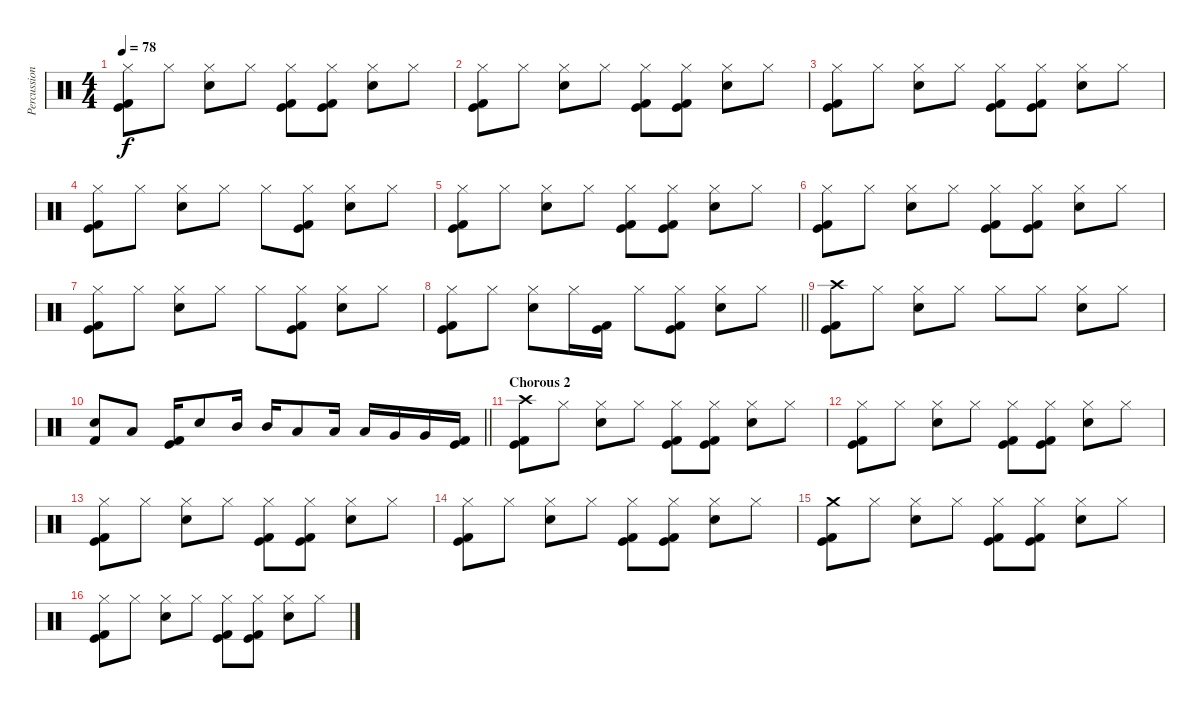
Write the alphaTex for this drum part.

\track ("Percussion" "Percussion") {instrument percussion}
\staff {score}
\articulation defaults
\ts (4 4)
\section ("" "")
\tempo 78
\clef neutral
\ks c
("Hi-Hat (closed)" "Kick (hit)" "Kick (hit) 2").8{dy f} "Hi-Hat (closed)".8 ("Hi-Hat (closed)" "Electric Snare (hit)").8 "Hi-Hat (closed)".8 ("Hi-Hat (closed)" "Kick (hit)" "Kick (hit) 2").8 ("Hi-Hat (closed)" "Kick (hit)" "Kick (hit) 2").8 ("Hi-Hat (closed)" "Electric Snare (hit)").8 "Hi-Hat (closed)".8 |
("Hi-Hat (closed)" "Kick (hit)" "Kick (hit) 2").8 "Hi-Hat (closed)".8 ("Hi-Hat (closed)" "Electric Snare (hit)").8 "Hi-Hat (closed)".8 ("Hi-Hat (closed)" "Kick (hit)" "Kick (hit) 2").8 ("Hi-Hat (closed)" "Kick (hit)" "Kick (hit) 2").8 ("Hi-Hat (closed)" "Electric Snare (hit)").8 "Hi-Hat (closed)".8 |
("Hi-Hat (closed)" "Kick (hit)" "Kick (hit) 2").8 "Hi-Hat (closed)".8 ("Hi-Hat (closed)" "Electric Snare (hit)").8 "Hi-Hat (closed)".8 ("Hi-Hat (closed)" "Kick (hit)" "Kick (hit) 2").8 ("Hi-Hat (closed)" "Kick (hit)" "Kick (hit) 2").8 ("Hi-Hat (closed)" "Electric Snare (hit)").8 "Hi-Hat (closed)".8 |
("Hi-Hat (closed)" "Kick (hit)" "Kick (hit) 2").8 "Hi-Hat (closed)".8 ("Hi-Hat (closed)" "Electric Snare (hit)").8 "Hi-Hat (closed)".8 "Hi-Hat (closed)".8 ("Hi-Hat (closed)" "Kick (hit)" "Kick (hit) 2").8 ("Hi-Hat (closed)" "Electric Snare (hit)").8 "Hi-Hat (closed)".8 |
("Hi-Hat (closed)" "Kick (hit)" "Kick (hit) 2").8 "Hi-Hat (closed)".8 ("Hi-Hat (closed)" "Electric Snare (hit)").8 "Hi-Hat (closed)".8 ("Hi-Hat (closed)" "Kick (hit)" "Kick (hit) 2").8 ("Hi-Hat (closed)" "Kick (hit)" "Kick (hit) 2").8 ("Hi-Hat (closed)" "Electric Snare (hit)").8 "Hi-Hat (closed)".8 |
("Hi-Hat (closed)" "Kick (hit)" "Kick (hit) 2").8 "Hi-Hat (closed)".8 ("Hi-Hat (closed)" "Electric Snare (hit)").8 "Hi-Hat (closed)".8 ("Hi-Hat (closed)" "Kick (hit)" "Kick (hit) 2").8 ("Hi-Hat (closed)" "Kick (hit)" "Kick (hit) 2").8 ("Hi-Hat (closed)" "Electric Snare (hit)").8 "Hi-Hat (closed)".8 |
("Hi-Hat (closed)" "Kick (hit)" "Kick (hit) 2").8 "Hi-Hat (closed)".8 ("Hi-Hat (closed)" "Electric Snare (hit)").8 "Hi-Hat (closed)".8 "Hi-Hat (closed)".8 ("Hi-Hat (closed)" "Kick (hit)" "Kick (hit) 2").8 ("Hi-Hat (closed)" "Electric Snare (hit)").8 "Hi-Hat (closed)".8 |
\barLineRight lightlight
("Hi-Hat (closed)" "Kick (hit)" "Kick (hit) 2").8 "Hi-Hat (closed)".8 ("Hi-Hat (closed)" "Electric Snare (hit)").8 "Hi-Hat (closed)".16 ("Kick (hit)" "Kick (hit) 2").16 "Hi-Hat (closed)".8 ("Hi-Hat (closed)" "Kick (hit)" "Kick (hit) 2").8 ("Hi-Hat (closed)" "Electric Snare (hit)").8 "Hi-Hat (closed)".8 |
\section ("" "")
("Crash high (hit)" "Kick (hit)" "Kick (hit) 2").8 "Hi-Hat (closed)".8 ("Hi-Hat (closed)" "Electric Snare (hit)").8 "Hi-Hat (closed)".8 "Hi-Hat (closed)".8 "Hi-Hat (closed)".8 ("Hi-Hat (closed)" "Electric Snare (hit)").8 "Hi-Hat (closed)".8 |
\barLineRight lightlight
("Electric Snare (hit)" "Kick (hit) 2").8 "Low Tom (hit)".8 ("Kick (hit)" "Kick (hit) 2").16 "Electric Snare (hit)".8 "Mid Tom (hit)".16 "Mid Tom (hit)".16 "Low Tom (hit)".8 "Low Tom (hit)".16 "Low Tom (hit)".16 "Very Low Tom (hit)".16 "Very Low Tom (hit)".16 ("Kick (hit)" "Kick (hit) 2").16 |
\section ("" "Chorous 2")
("Crash high (hit)" "Kick (hit)" "Kick (hit) 2").8 "Hi-Hat (closed)".8 ("Hi-Hat (closed)" "Electric Snare (hit)").8 "Hi-Hat (closed)".8 ("Hi-Hat (closed)" "Kick (hit)" "Kick (hit) 2").8 ("Hi-Hat (closed)" "Kick (hit)" "Kick (hit) 2").8 ("Hi-Hat (closed)" "Electric Snare (hit)").8 "Hi-Hat (closed)".8 |
("Hi-Hat (closed)" "Kick (hit)" "Kick (hit) 2").8 "Hi-Hat (closed)".8 ("Hi-Hat (closed)" "Electric Snare (hit)").8 "Hi-Hat (closed)".8 ("Hi-Hat (closed)" "Kick (hit)" "Kick (hit) 2").8 ("Hi-Hat (closed)" "Kick (hit)" "Kick (hit) 2").8 ("Hi-Hat (closed)" "Electric Snare (hit)").8 "Hi-Hat (closed)".8 |
("Hi-Hat (closed)" "Kick (hit)" "Kick (hit) 2").8 "Hi-Hat (closed)".8 ("Hi-Hat (closed)" "Electric Snare (hit)").8 "Hi-Hat (closed)".8 ("Hi-Hat (closed)" "Kick (hit)" "Kick (hit) 2").8 ("Hi-Hat (closed)" "Kick (hit)" "Kick (hit) 2").8 ("Hi-Hat (closed)" "Electric Snare (hit)").8 "Hi-Hat (closed)".8 |
("Hi-Hat (closed)" "Kick (hit)" "Kick (hit) 2").8 "Hi-Hat (closed)".8 ("Hi-Hat (closed)" "Electric Snare (hit)").8 "Hi-Hat (closed)".8 ("Hi-Hat (closed)" "Kick (hit)" "Kick (hit) 2").8 ("Hi-Hat (closed)" "Kick (hit)" "Kick (hit) 2").8 ("Hi-Hat (closed)" "Electric Snare (hit)").8 "Hi-Hat (closed)".8 |
("Crash medium (hit)" "Kick (hit)" "Kick (hit) 2").8 "Hi-Hat (closed)".8 ("Hi-Hat (closed)" "Electric Snare (hit)").8 "Hi-Hat (closed)".8 ("Hi-Hat (closed)" "Kick (hit)" "Kick (hit) 2").8 ("Hi-Hat (closed)" "Kick (hit)" "Kick (hit) 2").8 ("Hi-Hat (closed)" "Electric Snare (hit)").8 "Hi-Hat (closed)".8 |
("Hi-Hat (closed)" "Kick (hit)" "Kick (hit) 2").8 "Hi-Hat (closed)".8 ("Hi-Hat (closed)" "Electric Snare (hit)").8 "Hi-Hat (closed)".8 ("Hi-Hat (closed)" "Kick (hit)" "Kick (hit) 2").8 ("Hi-Hat (closed)" "Kick (hit)" "Kick (hit) 2").8 ("Hi-Hat (closed)" "Electric Snare (hit)").8 "Hi-Hat (closed)".8
